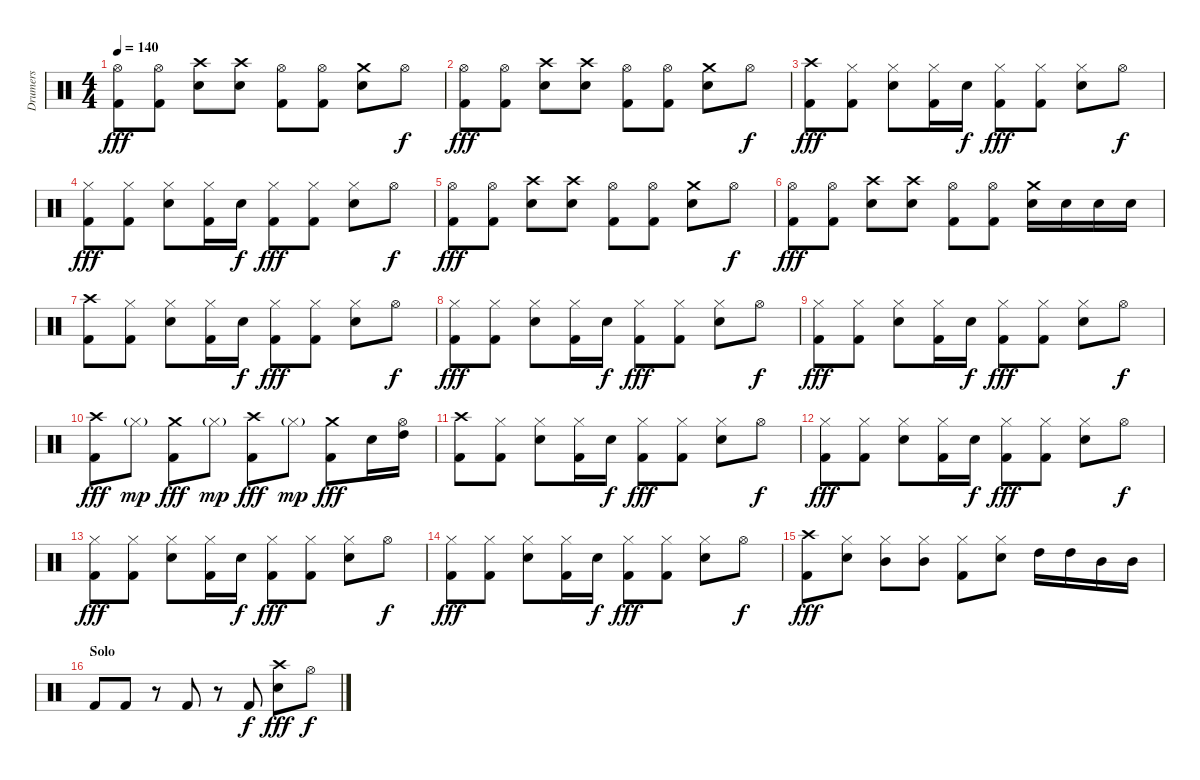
\track ("Drumers" "Drumers") {instrument percussion}
\staff {score}
\articulation defaults
\ts (4 4)
\tempo 140
\clef neutral
\ks c
("Hi-Hat (open)" "Kick (hit) 2").8{dy fff} ("Hi-Hat (open)" "Kick (hit) 2").8 ("Crash high (hit)" "Electric Snare (hit)").8 ("Crash high (hit)" "Electric Snare (hit)").8 ("Hi-Hat (open)" "Kick (hit) 2").8 ("Hi-Hat (open)" "Kick (hit) 2").8 ("Crash medium (hit)" "Electric Snare (hit)").8 "Hi-Hat (open)".8{dy f} |
("Hi-Hat (open)" "Kick (hit) 2").8{dy fff} ("Hi-Hat (open)" "Kick (hit) 2").8 ("Crash high (hit)" "Electric Snare (hit)").8 ("Crash high (hit)" "Electric Snare (hit)").8 ("Hi-Hat (open)" "Kick (hit) 2").8 ("Hi-Hat (open)" "Kick (hit) 2").8 ("Crash medium (hit)" "Electric Snare (hit)").8 "Hi-Hat (open)".8{dy f} |
("Crash high (hit)" "Kick (hit) 2").8{dy fff} ("Hi-Hat (closed)" "Kick (hit) 2").8 ("Hi-Hat (closed)" "Electric Snare (hit)").8 ("Hi-Hat (closed)" "Kick (hit) 2").16 "Electric Snare (hit)".16{dy f} ("Hi-Hat (closed)" "Kick (hit) 2").8{dy fff} ("Hi-Hat (closed)" "Kick (hit) 2").8 ("Hi-Hat (closed)" "Electric Snare (hit)").8 "Hi-Hat (open)".8{dy f} |
("Hi-Hat (closed)" "Kick (hit) 2").8{dy fff} ("Hi-Hat (closed)" "Kick (hit) 2").8 ("Hi-Hat (closed)" "Electric Snare (hit)").8 ("Hi-Hat (closed)" "Kick (hit) 2").16 "Electric Snare (hit)".16{dy f} ("Hi-Hat (closed)" "Kick (hit) 2").8{dy fff} ("Hi-Hat (closed)" "Kick (hit) 2").8 ("Hi-Hat (closed)" "Electric Snare (hit)").8 "Hi-Hat (open)".8{dy f} |
("Hi-Hat (open)" "Kick (hit) 2").8{dy fff} ("Hi-Hat (open)" "Kick (hit) 2").8 ("Crash high (hit)" "Electric Snare (hit)").8 ("Crash high (hit)" "Electric Snare (hit)").8 ("Hi-Hat (open)" "Kick (hit) 2").8 ("Hi-Hat (open)" "Kick (hit) 2").8 ("Crash medium (hit)" "Electric Snare (hit)").8 "Hi-Hat (open)".8{dy f} |
("Hi-Hat (open)" "Kick (hit) 2").8{dy fff} ("Hi-Hat (open)" "Kick (hit) 2").8 ("Crash high (hit)" "Electric Snare (hit)").8 ("Crash high (hit)" "Electric Snare (hit)").8 ("Hi-Hat (open)" "Kick (hit) 2").8 ("Hi-Hat (open)" "Kick (hit) 2").8 ("Crash medium (hit)" "Electric Snare (hit)").16 "Electric Snare (hit)".16 "Electric Snare (hit)".16 "Electric Snare (hit)".16 |
("Crash high (hit)" "Kick (hit) 2").8 ("Hi-Hat (closed)" "Kick (hit) 2").8 ("Hi-Hat (closed)" "Electric Snare (hit)").8 ("Hi-Hat (closed)" "Kick (hit) 2").16 "Electric Snare (hit)".16{dy f} ("Hi-Hat (closed)" "Kick (hit) 2").8{dy fff} ("Hi-Hat (closed)" "Kick (hit) 2").8 ("Hi-Hat (closed)" "Electric Snare (hit)").8 "Hi-Hat (open)".8{dy f} |
("Hi-Hat (closed)" "Kick (hit) 2").8{dy fff} ("Hi-Hat (closed)" "Kick (hit) 2").8 ("Hi-Hat (closed)" "Electric Snare (hit)").8 ("Hi-Hat (closed)" "Kick (hit) 2").16 "Electric Snare (hit)".16{dy f} ("Hi-Hat (closed)" "Kick (hit) 2").8{dy fff} ("Hi-Hat (closed)" "Kick (hit) 2").8 ("Hi-Hat (closed)" "Electric Snare (hit)").8 "Hi-Hat (open)".8{dy f} |
("Hi-Hat (closed)" "Kick (hit) 2").8{dy fff} ("Hi-Hat (closed)" "Kick (hit) 2").8 ("Hi-Hat (closed)" "Electric Snare (hit)").8 ("Hi-Hat (closed)" "Kick (hit) 2").16 "Electric Snare (hit)".16{dy f} ("Hi-Hat (closed)" "Kick (hit) 2").8{dy fff} ("Hi-Hat (closed)" "Kick (hit) 2").8 ("Hi-Hat (closed)" "Electric Snare (hit)").8 "Hi-Hat (open)".8{dy f} |
("Crash high (hit)" "Kick (hit) 2").8{dy fff} "Hi-Hat (closed)"{g}.8{dy mp} ("Crash medium (hit)" "Kick (hit) 2").8{dy fff} "Hi-Hat (closed)"{g}.8{dy mp} ("Crash high (hit)" "Kick (hit) 2").8{dy fff} "Hi-Hat (closed)"{g}.8{dy mp} ("Crash medium (hit)" "Kick (hit) 2").8{dy fff} "Electric Snare (hit)".16 ("Hi-Hat (open)" "High Tom (hit)").16 |
("Crash high (hit)" "Kick (hit) 2").8 ("Hi-Hat (closed)" "Kick (hit) 2").8 ("Hi-Hat (closed)" "Electric Snare (hit)").8 ("Hi-Hat (closed)" "Kick (hit) 2").16 "Electric Snare (hit)".16{dy f} ("Hi-Hat (closed)" "Kick (hit) 2").8{dy fff} ("Hi-Hat (closed)" "Kick (hit) 2").8 ("Hi-Hat (closed)" "Electric Snare (hit)").8 "Hi-Hat (open)".8{dy f} |
("Hi-Hat (closed)" "Kick (hit) 2").8{dy fff} ("Hi-Hat (closed)" "Kick (hit) 2").8 ("Hi-Hat (closed)" "Electric Snare (hit)").8 ("Hi-Hat (closed)" "Kick (hit) 2").16 "Electric Snare (hit)".16{dy f} ("Hi-Hat (closed)" "Kick (hit) 2").8{dy fff} ("Hi-Hat (closed)" "Kick (hit) 2").8 ("Hi-Hat (closed)" "Electric Snare (hit)").8 "Hi-Hat (open)".8{dy f} |
("Hi-Hat (closed)" "Kick (hit) 2").8{dy fff} ("Hi-Hat (closed)" "Kick (hit) 2").8 ("Hi-Hat (closed)" "Electric Snare (hit)").8 ("Hi-Hat (closed)" "Kick (hit) 2").16 "Electric Snare (hit)".16{dy f} ("Hi-Hat (closed)" "Kick (hit) 2").8{dy fff} ("Hi-Hat (closed)" "Kick (hit) 2").8 ("Hi-Hat (closed)" "Electric Snare (hit)").8 "Hi-Hat (open)".8{dy f} |
("Hi-Hat (closed)" "Kick (hit) 2").8{dy fff} ("Hi-Hat (closed)" "Kick (hit) 2").8 ("Hi-Hat (closed)" "Electric Snare (hit)").8 ("Hi-Hat (closed)" "Kick (hit) 2").16 "Electric Snare (hit)".16{dy f} ("Hi-Hat (closed)" "Kick (hit) 2").8{dy fff} ("Hi-Hat (closed)" "Kick (hit) 2").8 ("Hi-Hat (closed)" "Electric Snare (hit)").8 "Hi-Hat (open)".8{dy f} |
("Crash high (hit)" "Kick (hit) 2").8{dy fff} ("Hi-Hat (closed)" "Electric Snare (hit)").8 ("Hi-Hat (closed)" "Mid Tom (hit)").8 ("Hi-Hat (closed)" "Mid Tom (hit)").8 ("Hi-Hat (closed)" "Kick (hit) 2").8 ("Hi-Hat (closed)" "Electric Snare (hit)").8 "High Tom (hit)".16 "High Tom (hit)".16 "Mid Tom (hit)".16 "Mid Tom (hit)".16 |
\section ("" "Solo")
"Kick (hit) 2".8 "Kick (hit) 2".8 r.8 "Kick (hit) 2".8 r.8 "Kick (hit) 2".8{dy f} ("Crash high (hit)" "Electric Snare (hit)").8{dy fff} "Hi-Hat (open)".8{dy f}
